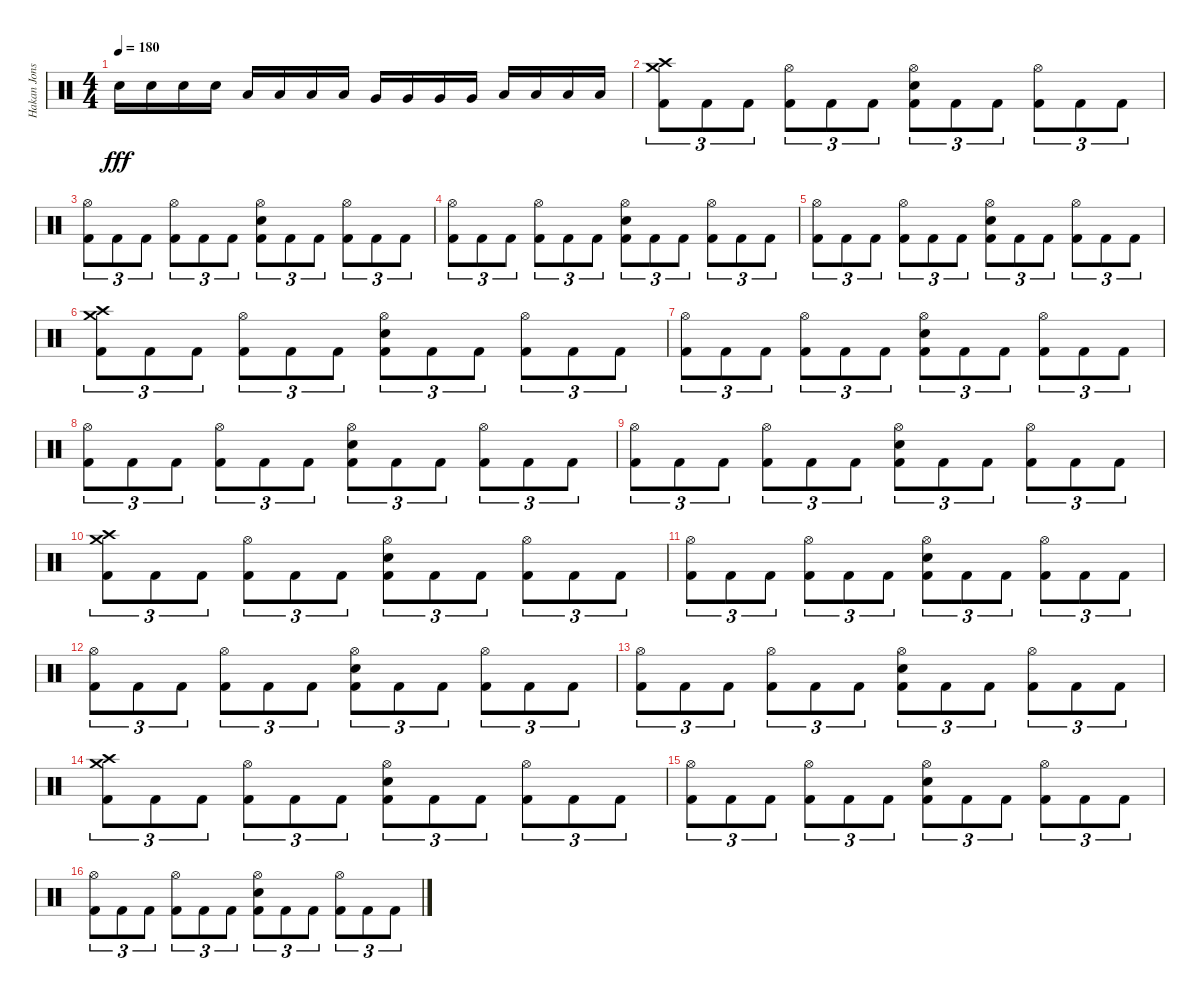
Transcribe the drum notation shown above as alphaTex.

\track ("Hakan Jonsson" "Hakan Jons") {instrument percussion}
\staff {score}
\articulation defaults
\ts (4 4)
\tempo 180
\clef neutral
\ks c "Electric Snare (hit)".16{dy fff} "Electric Snare (hit)".16 "Electric Snare (hit)".16 "Electric Snare (hit)".16 "Low Tom (hit)".16 "Low Tom (hit)".16 "Low Tom (hit)".16 "Low Tom (hit)".16 "Very Low Tom (hit)".16 "Very Low Tom (hit)".16 "Very Low Tom (hit)".16 "Very Low Tom (hit)".16 "Low Floor Tom (hit)".16 "Low Floor Tom (hit)".16 "Low Floor Tom (hit)".16 "Low Floor Tom (hit)".16
|
("Crash high (hit)" "Crash medium (hit)" "Kick (hit) 2").8{tu (3 2)} "Kick (hit) 2".8{tu (3 2)} "Kick (hit) 2".8{tu (3 2)} ("Hi-Hat (open)" "Kick (hit) 2").8{tu (3 2)} "Kick (hit) 2".8{tu (3 2)} "Kick (hit) 2".8{tu (3 2)} ("Hi-Hat (open)" "Electric Snare (hit)" "Kick (hit) 2").8{tu (3 2)} "Kick (hit) 2".8{tu (3 2)} "Kick (hit) 2".8{tu (3 2)} ("Hi-Hat (open)" "Kick (hit) 2").8{tu (3 2)} "Kick (hit) 2".8{tu (3 2)} "Kick (hit) 2".8{tu (3 2)} |
("Hi-Hat (open)" "Kick (hit) 2").8{tu (3 2)} "Kick (hit) 2".8{tu (3 2)} "Kick (hit) 2".8{tu (3 2)} ("Hi-Hat (open)" "Kick (hit) 2").8{tu (3 2)} "Kick (hit) 2".8{tu (3 2)} "Kick (hit) 2".8{tu (3 2)} ("Hi-Hat (open)" "Electric Snare (hit)" "Kick (hit) 2").8{tu (3 2)} "Kick (hit) 2".8{tu (3 2)} "Kick (hit) 2".8{tu (3 2)} ("Hi-Hat (open)" "Kick (hit) 2").8{tu (3 2)} "Kick (hit) 2".8{tu (3 2)} "Kick (hit) 2".8{tu (3 2)} |
("Hi-Hat (open)" "Kick (hit) 2").8{tu (3 2)} "Kick (hit) 2".8{tu (3 2)} "Kick (hit) 2".8{tu (3 2)} ("Hi-Hat (open)" "Kick (hit) 2").8{tu (3 2)} "Kick (hit) 2".8{tu (3 2)} "Kick (hit) 2".8{tu (3 2)} ("Hi-Hat (open)" "Electric Snare (hit)" "Kick (hit) 2").8{tu (3 2)} "Kick (hit) 2".8{tu (3 2)} "Kick (hit) 2".8{tu (3 2)} ("Hi-Hat (open)" "Kick (hit) 2").8{tu (3 2)} "Kick (hit) 2".8{tu (3 2)} "Kick (hit) 2".8{tu (3 2)} |
("Hi-Hat (open)" "Kick (hit) 2").8{tu (3 2)} "Kick (hit) 2".8{tu (3 2)} "Kick (hit) 2".8{tu (3 2)} ("Hi-Hat (open)" "Kick (hit) 2").8{tu (3 2)} "Kick (hit) 2".8{tu (3 2)} "Kick (hit) 2".8{tu (3 2)} ("Hi-Hat (open)" "Electric Snare (hit)" "Kick (hit) 2").8{tu (3 2)} "Kick (hit) 2".8{tu (3 2)} "Kick (hit) 2".8{tu (3 2)} ("Hi-Hat (open)" "Kick (hit) 2").8{tu (3 2)} "Kick (hit) 2".8{tu (3 2)} "Kick (hit) 2".8{tu (3 2)} |
("Crash high (hit)" "Crash medium (hit)" "Kick (hit) 2").8{tu (3 2)} "Kick (hit) 2".8{tu (3 2)} "Kick (hit) 2".8{tu (3 2)} ("Hi-Hat (open)" "Kick (hit) 2").8{tu (3 2)} "Kick (hit) 2".8{tu (3 2)} "Kick (hit) 2".8{tu (3 2)} ("Hi-Hat (open)" "Electric Snare (hit)" "Kick (hit) 2").8{tu (3 2)} "Kick (hit) 2".8{tu (3 2)} "Kick (hit) 2".8{tu (3 2)} ("Hi-Hat (open)" "Kick (hit) 2").8{tu (3 2)} "Kick (hit) 2".8{tu (3 2)} "Kick (hit) 2".8{tu (3 2)} |
("Hi-Hat (open)" "Kick (hit) 2").8{tu (3 2)} "Kick (hit) 2".8{tu (3 2)} "Kick (hit) 2".8{tu (3 2)} ("Hi-Hat (open)" "Kick (hit) 2").8{tu (3 2)} "Kick (hit) 2".8{tu (3 2)} "Kick (hit) 2".8{tu (3 2)} ("Hi-Hat (open)" "Electric Snare (hit)" "Kick (hit) 2").8{tu (3 2)} "Kick (hit) 2".8{tu (3 2)} "Kick (hit) 2".8{tu (3 2)} ("Hi-Hat (open)" "Kick (hit) 2").8{tu (3 2)} "Kick (hit) 2".8{tu (3 2)} "Kick (hit) 2".8{tu (3 2)} |
("Hi-Hat (open)" "Kick (hit) 2").8{tu (3 2)} "Kick (hit) 2".8{tu (3 2)} "Kick (hit) 2".8{tu (3 2)} ("Hi-Hat (open)" "Kick (hit) 2").8{tu (3 2)} "Kick (hit) 2".8{tu (3 2)} "Kick (hit) 2".8{tu (3 2)} ("Hi-Hat (open)" "Electric Snare (hit)" "Kick (hit) 2").8{tu (3 2)} "Kick (hit) 2".8{tu (3 2)} "Kick (hit) 2".8{tu (3 2)} ("Hi-Hat (open)" "Kick (hit) 2").8{tu (3 2)} "Kick (hit) 2".8{tu (3 2)} "Kick (hit) 2".8{tu (3 2)} |
("Hi-Hat (open)" "Kick (hit) 2").8{tu (3 2)} "Kick (hit) 2".8{tu (3 2)} "Kick (hit) 2".8{tu (3 2)} ("Hi-Hat (open)" "Kick (hit) 2").8{tu (3 2)} "Kick (hit) 2".8{tu (3 2)} "Kick (hit) 2".8{tu (3 2)} ("Hi-Hat (open)" "Electric Snare (hit)" "Kick (hit) 2").8{tu (3 2)} "Kick (hit) 2".8{tu (3 2)} "Kick (hit) 2".8{tu (3 2)} ("Hi-Hat (open)" "Kick (hit) 2").8{tu (3 2)} "Kick (hit) 2".8{tu (3 2)} "Kick (hit) 2".8{tu (3 2)} |
("Crash high (hit)" "Crash medium (hit)" "Kick (hit) 2").8{tu (3 2)} "Kick (hit) 2".8{tu (3 2)} "Kick (hit) 2".8{tu (3 2)} ("Hi-Hat (open)" "Kick (hit) 2").8{tu (3 2)} "Kick (hit) 2".8{tu (3 2)} "Kick (hit) 2".8{tu (3 2)} ("Hi-Hat (open)" "Electric Snare (hit)" "Kick (hit) 2").8{tu (3 2)} "Kick (hit) 2".8{tu (3 2)} "Kick (hit) 2".8{tu (3 2)} ("Hi-Hat (open)" "Kick (hit) 2").8{tu (3 2)} "Kick (hit) 2".8{tu (3 2)} "Kick (hit) 2".8{tu (3 2)} |
("Hi-Hat (open)" "Kick (hit) 2").8{tu (3 2)} "Kick (hit) 2".8{tu (3 2)} "Kick (hit) 2".8{tu (3 2)} ("Hi-Hat (open)" "Kick (hit) 2").8{tu (3 2)} "Kick (hit) 2".8{tu (3 2)} "Kick (hit) 2".8{tu (3 2)} ("Hi-Hat (open)" "Electric Snare (hit)" "Kick (hit) 2").8{tu (3 2)} "Kick (hit) 2".8{tu (3 2)} "Kick (hit) 2".8{tu (3 2)} ("Hi-Hat (open)" "Kick (hit) 2").8{tu (3 2)} "Kick (hit) 2".8{tu (3 2)} "Kick (hit) 2".8{tu (3 2)} |
("Hi-Hat (open)" "Kick (hit) 2").8{tu (3 2)} "Kick (hit) 2".8{tu (3 2)} "Kick (hit) 2".8{tu (3 2)} ("Hi-Hat (open)" "Kick (hit) 2").8{tu (3 2)} "Kick (hit) 2".8{tu (3 2)} "Kick (hit) 2".8{tu (3 2)} ("Hi-Hat (open)" "Electric Snare (hit)" "Kick (hit) 2").8{tu (3 2)} "Kick (hit) 2".8{tu (3 2)} "Kick (hit) 2".8{tu (3 2)} ("Hi-Hat (open)" "Kick (hit) 2").8{tu (3 2)} "Kick (hit) 2".8{tu (3 2)} "Kick (hit) 2".8{tu (3 2)} |
("Hi-Hat (open)" "Kick (hit) 2").8{tu (3 2)} "Kick (hit) 2".8{tu (3 2)} "Kick (hit) 2".8{tu (3 2)} ("Hi-Hat (open)" "Kick (hit) 2").8{tu (3 2)} "Kick (hit) 2".8{tu (3 2)} "Kick (hit) 2".8{tu (3 2)} ("Hi-Hat (open)" "Electric Snare (hit)" "Kick (hit) 2").8{tu (3 2)} "Kick (hit) 2".8{tu (3 2)} "Kick (hit) 2".8{tu (3 2)} ("Hi-Hat (open)" "Kick (hit) 2").8{tu (3 2)} "Kick (hit) 2".8{tu (3 2)} "Kick (hit) 2".8{tu (3 2)} |
("Crash high (hit)" "Crash medium (hit)" "Kick (hit) 2").8{tu (3 2)} "Kick (hit) 2".8{tu (3 2)} "Kick (hit) 2".8{tu (3 2)} ("Hi-Hat (open)" "Kick (hit) 2").8{tu (3 2)} "Kick (hit) 2".8{tu (3 2)} "Kick (hit) 2".8{tu (3 2)} ("Hi-Hat (open)" "Electric Snare (hit)" "Kick (hit) 2").8{tu (3 2)} "Kick (hit) 2".8{tu (3 2)} "Kick (hit) 2".8{tu (3 2)} ("Hi-Hat (open)" "Kick (hit) 2").8{tu (3 2)} "Kick (hit) 2".8{tu (3 2)} "Kick (hit) 2".8{tu (3 2)} |
("Hi-Hat (open)" "Kick (hit) 2").8{tu (3 2)} "Kick (hit) 2".8{tu (3 2)} "Kick (hit) 2".8{tu (3 2)} ("Hi-Hat (open)" "Kick (hit) 2").8{tu (3 2)} "Kick (hit) 2".8{tu (3 2)} "Kick (hit) 2".8{tu (3 2)} ("Hi-Hat (open)" "Electric Snare (hit)" "Kick (hit) 2").8{tu (3 2)} "Kick (hit) 2".8{tu (3 2)} "Kick (hit) 2".8{tu (3 2)} ("Hi-Hat (open)" "Kick (hit) 2").8{tu (3 2)} "Kick (hit) 2".8{tu (3 2)} "Kick (hit) 2".8{tu (3 2)} |
("Hi-Hat (open)" "Kick (hit) 2").8{tu (3 2)} "Kick (hit) 2".8{tu (3 2)} "Kick (hit) 2".8{tu (3 2)} ("Hi-Hat (open)" "Kick (hit) 2").8{tu (3 2)} "Kick (hit) 2".8{tu (3 2)} "Kick (hit) 2".8{tu (3 2)} ("Hi-Hat (open)" "Electric Snare (hit)" "Kick (hit) 2").8{tu (3 2)} "Kick (hit) 2".8{tu (3 2)} "Kick (hit) 2".8{tu (3 2)} ("Hi-Hat (open)" "Kick (hit) 2").8{tu (3 2)} "Kick (hit) 2".8{tu (3 2)} "Kick (hit) 2".8{tu (3 2)}
